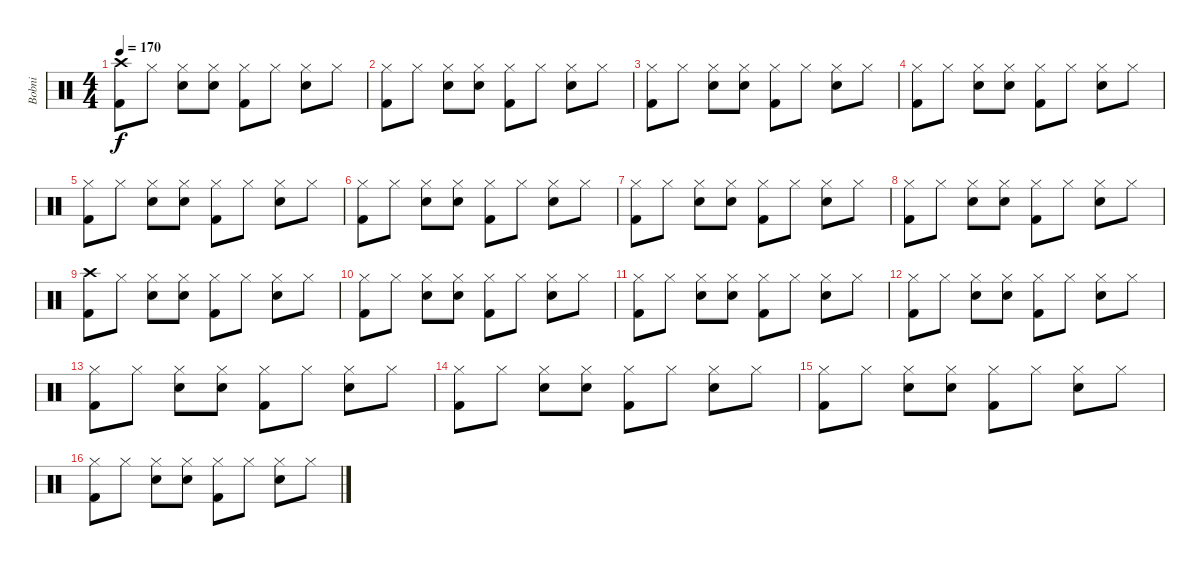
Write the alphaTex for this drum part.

\track ("Bobni" "Bobni") {instrument percussion}
\staff {score}
\articulation defaults
\ts (4 4)
\tempo 170
\clef neutral
\ks c
("Crash high (hit)" "Kick (hit) 2").8{dy f} "Hi-Hat (closed)".8 ("Hi-Hat (closed)" "Snare (hit) 2").8 ("Hi-Hat (closed)" "Snare (hit) 2").8 ("Hi-Hat (closed)" "Kick (hit) 2").8 "Hi-Hat (closed)".8 ("Hi-Hat (closed)" "Snare (hit) 2").8 "Hi-Hat (closed)".8 |
("Hi-Hat (closed)" "Kick (hit) 2").8 "Hi-Hat (closed)".8 ("Hi-Hat (closed)" "Snare (hit) 2").8 ("Hi-Hat (closed)" "Snare (hit) 2").8 ("Hi-Hat (closed)" "Kick (hit) 2").8 "Hi-Hat (closed)".8 ("Hi-Hat (closed)" "Snare (hit) 2").8 "Hi-Hat (closed)".8 |
("Hi-Hat (closed)" "Kick (hit) 2").8 "Hi-Hat (closed)".8 ("Hi-Hat (closed)" "Snare (hit) 2").8 ("Hi-Hat (closed)" "Snare (hit) 2").8 ("Hi-Hat (closed)" "Kick (hit) 2").8 "Hi-Hat (closed)".8 ("Hi-Hat (closed)" "Snare (hit) 2").8 "Hi-Hat (closed)".8 |
("Hi-Hat (closed)" "Kick (hit) 2").8 "Hi-Hat (closed)".8 ("Hi-Hat (closed)" "Snare (hit) 2").8 ("Hi-Hat (closed)" "Snare (hit) 2").8 ("Hi-Hat (closed)" "Kick (hit) 2").8 "Hi-Hat (closed)".8 ("Hi-Hat (closed)" "Snare (hit) 2").8 "Hi-Hat (closed)".8 |
("Hi-Hat (closed)" "Kick (hit) 2").8 "Hi-Hat (closed)".8 ("Hi-Hat (closed)" "Snare (hit) 2").8 ("Hi-Hat (closed)" "Snare (hit) 2").8 ("Hi-Hat (closed)" "Kick (hit) 2").8 "Hi-Hat (closed)".8 ("Hi-Hat (closed)" "Snare (hit) 2").8 "Hi-Hat (closed)".8 |
("Hi-Hat (closed)" "Kick (hit) 2").8 "Hi-Hat (closed)".8 ("Hi-Hat (closed)" "Snare (hit) 2").8 ("Hi-Hat (closed)" "Snare (hit) 2").8 ("Hi-Hat (closed)" "Kick (hit) 2").8 "Hi-Hat (closed)".8 ("Hi-Hat (closed)" "Snare (hit) 2").8 "Hi-Hat (closed)".8 |
("Hi-Hat (closed)" "Kick (hit) 2").8 "Hi-Hat (closed)".8 ("Hi-Hat (closed)" "Snare (hit) 2").8 ("Hi-Hat (closed)" "Snare (hit) 2").8 ("Hi-Hat (closed)" "Kick (hit) 2").8 "Hi-Hat (closed)".8 ("Hi-Hat (closed)" "Snare (hit) 2").8 "Hi-Hat (closed)".8 |
("Hi-Hat (closed)" "Kick (hit) 2").8 "Hi-Hat (closed)".8 ("Hi-Hat (closed)" "Snare (hit) 2").8 ("Hi-Hat (closed)" "Snare (hit) 2").8 ("Hi-Hat (closed)" "Kick (hit) 2").8 "Hi-Hat (closed)".8 ("Hi-Hat (closed)" "Snare (hit) 2").8 "Hi-Hat (closed)".8 |
("Crash high (hit)" "Kick (hit) 2").8 "Hi-Hat (closed)".8 ("Hi-Hat (closed)" "Snare (hit) 2").8 ("Hi-Hat (closed)" "Snare (hit) 2").8 ("Hi-Hat (closed)" "Kick (hit) 2").8 "Hi-Hat (closed)".8 ("Hi-Hat (closed)" "Snare (hit) 2").8 "Hi-Hat (closed)".8 |
("Hi-Hat (closed)" "Kick (hit) 2").8 "Hi-Hat (closed)".8 ("Hi-Hat (closed)" "Snare (hit) 2").8 ("Hi-Hat (closed)" "Snare (hit) 2").8 ("Hi-Hat (closed)" "Kick (hit) 2").8 "Hi-Hat (closed)".8 ("Hi-Hat (closed)" "Snare (hit) 2").8 "Hi-Hat (closed)".8 |
("Hi-Hat (closed)" "Kick (hit) 2").8 "Hi-Hat (closed)".8 ("Hi-Hat (closed)" "Snare (hit) 2").8 ("Hi-Hat (closed)" "Snare (hit) 2").8 ("Hi-Hat (closed)" "Kick (hit) 2").8 "Hi-Hat (closed)".8 ("Hi-Hat (closed)" "Snare (hit) 2").8 "Hi-Hat (closed)".8 |
("Hi-Hat (closed)" "Kick (hit) 2").8 "Hi-Hat (closed)".8 ("Hi-Hat (closed)" "Snare (hit) 2").8 ("Hi-Hat (closed)" "Snare (hit) 2").8 ("Hi-Hat (closed)" "Kick (hit) 2").8 "Hi-Hat (closed)".8 ("Hi-Hat (closed)" "Snare (hit) 2").8 "Hi-Hat (closed)".8 |
("Hi-Hat (closed)" "Kick (hit) 2").8 "Hi-Hat (closed)".8 ("Hi-Hat (closed)" "Snare (hit) 2").8 ("Hi-Hat (closed)" "Snare (hit) 2").8 ("Hi-Hat (closed)" "Kick (hit) 2").8 "Hi-Hat (closed)".8 ("Hi-Hat (closed)" "Snare (hit) 2").8 "Hi-Hat (closed)".8 |
("Hi-Hat (closed)" "Kick (hit) 2").8 "Hi-Hat (closed)".8 ("Hi-Hat (closed)" "Snare (hit) 2").8 ("Hi-Hat (closed)" "Snare (hit) 2").8 ("Hi-Hat (closed)" "Kick (hit) 2").8 "Hi-Hat (closed)".8 ("Hi-Hat (closed)" "Snare (hit) 2").8 "Hi-Hat (closed)".8 |
("Hi-Hat (closed)" "Kick (hit) 2").8 "Hi-Hat (closed)".8 ("Hi-Hat (closed)" "Snare (hit) 2").8 ("Hi-Hat (closed)" "Snare (hit) 2").8 ("Hi-Hat (closed)" "Kick (hit) 2").8 "Hi-Hat (closed)".8 ("Hi-Hat (closed)" "Snare (hit) 2").8 "Hi-Hat (closed)".8 |
("Hi-Hat (closed)" "Kick (hit) 2").8 "Hi-Hat (closed)".8 ("Hi-Hat (closed)" "Snare (hit) 2").8 ("Hi-Hat (closed)" "Snare (hit) 2").8 ("Hi-Hat (closed)" "Kick (hit) 2").8 "Hi-Hat (closed)".8 ("Hi-Hat (closed)" "Snare (hit) 2").8 "Hi-Hat (closed)".8
